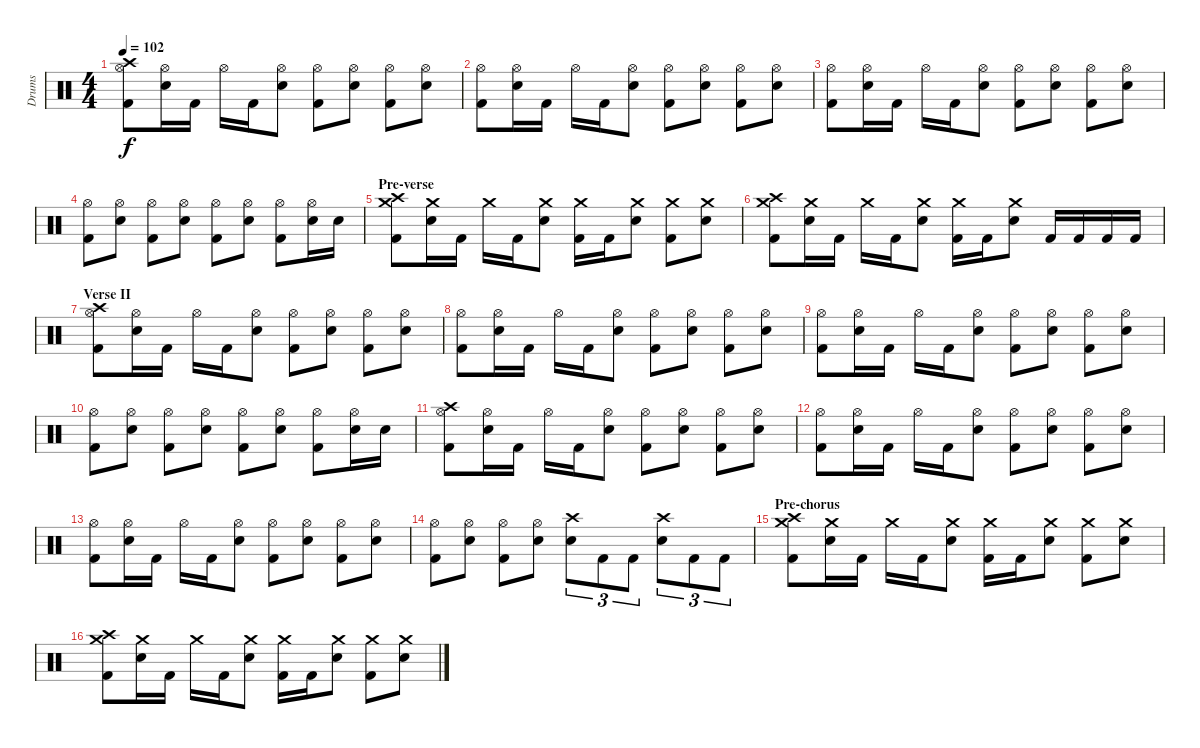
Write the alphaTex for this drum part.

\track ("Drums" "Drums") {instrument percussion}
\staff {score}
\articulation defaults
\ts (4 4)
\tempo 102
\clef neutral
\ks c
("Hi-Hat (open)" "Kick (hit) 2" "Crash high (hit)").8{dy f} ("Hi-Hat (open)" "Electric Snare (hit)").16 "Kick (hit) 2".16 "Hi-Hat (open)".16 "Kick (hit) 2".16 ("Hi-Hat (open)" "Electric Snare (hit)").8 ("Hi-Hat (open)" "Kick (hit) 2").8 ("Hi-Hat (open)" "Electric Snare (hit)").8 ("Hi-Hat (open)" "Kick (hit) 2").8 ("Hi-Hat (open)" "Electric Snare (hit)").8 |
("Hi-Hat (open)" "Kick (hit) 2").8 ("Hi-Hat (open)" "Electric Snare (hit)").16 "Kick (hit) 2".16 "Hi-Hat (open)".16 "Kick (hit) 2".16 ("Hi-Hat (open)" "Electric Snare (hit)").8 ("Hi-Hat (open)" "Kick (hit) 2").8 ("Hi-Hat (open)" "Electric Snare (hit)").8 ("Hi-Hat (open)" "Kick (hit) 2").8 ("Hi-Hat (open)" "Electric Snare (hit)").8 |
("Hi-Hat (open)" "Kick (hit) 2").8 ("Hi-Hat (open)" "Electric Snare (hit)").16 "Kick (hit) 2".16 "Hi-Hat (open)".16 "Kick (hit) 2".16 ("Hi-Hat (open)" "Electric Snare (hit)").8 ("Hi-Hat (open)" "Kick (hit) 2").8 ("Hi-Hat (open)" "Electric Snare (hit)").8 ("Hi-Hat (open)" "Kick (hit) 2").8 ("Hi-Hat (open)" "Electric Snare (hit)").8 |
("Hi-Hat (open)" "Kick (hit) 2").8 ("Hi-Hat (open)" "Electric Snare (hit)").8 ("Hi-Hat (open)" "Kick (hit) 2").8 ("Hi-Hat (open)" "Electric Snare (hit)").8 ("Hi-Hat (open)" "Kick (hit) 2").8 ("Hi-Hat (open)" "Electric Snare (hit)").8 ("Hi-Hat (open)" "Kick (hit) 2").8 ("Hi-Hat (open)" "Electric Snare (hit)").16 "Electric Snare (hit)".16 |
\section ("" "Pre-verse")
("Crash medium (hit)" "Kick (hit) 2" "Crash high (hit)").8 ("Crash medium (hit)" "Electric Snare (hit)").16 "Kick (hit) 2".16 "Crash medium (hit)".16 "Kick (hit) 2".16 ("Crash medium (hit)" "Electric Snare (hit)").8 ("Crash medium (hit)" "Kick (hit) 2").16 "Kick (hit) 2".16 ("Crash medium (hit)" "Electric Snare (hit)").8 ("Crash medium (hit)" "Kick (hit) 2").8 ("Crash medium (hit)" "Electric Snare (hit)").8 |
("Crash medium (hit)" "Kick (hit) 2" "Crash high (hit)").8 ("Crash medium (hit)" "Electric Snare (hit)").16 "Kick (hit) 2".16 "Crash medium (hit)".16 "Kick (hit) 2".16 ("Crash medium (hit)" "Electric Snare (hit)").8 ("Crash medium (hit)" "Kick (hit) 2").16 "Kick (hit) 2".16 ("Crash medium (hit)" "Electric Snare (hit)").8 "Kick (hit) 2".16 "Kick (hit) 2".16 "Kick (hit) 2".16 "Kick (hit) 2".16 |
\section ("" "Verse II")
("Hi-Hat (open)" "Kick (hit) 2" "Crash high (hit)").8 ("Hi-Hat (open)" "Electric Snare (hit)").16 "Kick (hit) 2".16 "Hi-Hat (open)".16 "Kick (hit) 2".16 ("Hi-Hat (open)" "Electric Snare (hit)").8 ("Hi-Hat (open)" "Kick (hit) 2").8 ("Hi-Hat (open)" "Electric Snare (hit)").8 ("Hi-Hat (open)" "Kick (hit) 2").8 ("Hi-Hat (open)" "Electric Snare (hit)").8 |
("Hi-Hat (open)" "Kick (hit) 2").8 ("Hi-Hat (open)" "Electric Snare (hit)").16 "Kick (hit) 2".16 "Hi-Hat (open)".16 "Kick (hit) 2".16 ("Hi-Hat (open)" "Electric Snare (hit)").8 ("Hi-Hat (open)" "Kick (hit) 2").8 ("Hi-Hat (open)" "Electric Snare (hit)").8 ("Hi-Hat (open)" "Kick (hit) 2").8 ("Hi-Hat (open)" "Electric Snare (hit)").8 |
("Hi-Hat (open)" "Kick (hit) 2").8 ("Hi-Hat (open)" "Electric Snare (hit)").16 "Kick (hit) 2".16 "Hi-Hat (open)".16 "Kick (hit) 2".16 ("Hi-Hat (open)" "Electric Snare (hit)").8 ("Hi-Hat (open)" "Kick (hit) 2").8 ("Hi-Hat (open)" "Electric Snare (hit)").8 ("Hi-Hat (open)" "Kick (hit) 2").8 ("Hi-Hat (open)" "Electric Snare (hit)").8 |
("Hi-Hat (open)" "Kick (hit) 2").8 ("Hi-Hat (open)" "Electric Snare (hit)").8 ("Hi-Hat (open)" "Kick (hit) 2").8 ("Hi-Hat (open)" "Electric Snare (hit)").8 ("Hi-Hat (open)" "Kick (hit) 2").8 ("Hi-Hat (open)" "Electric Snare (hit)").8 ("Hi-Hat (open)" "Kick (hit) 2").8 ("Hi-Hat (open)" "Electric Snare (hit)").16 "Electric Snare (hit)".16 |
("Hi-Hat (open)" "Kick (hit) 2" "Crash high (hit)").8 ("Hi-Hat (open)" "Electric Snare (hit)").16 "Kick (hit) 2".16 "Hi-Hat (open)".16 "Kick (hit) 2".16 ("Hi-Hat (open)" "Electric Snare (hit)").8 ("Hi-Hat (open)" "Kick (hit) 2").8 ("Hi-Hat (open)" "Electric Snare (hit)").8 ("Hi-Hat (open)" "Kick (hit) 2").8 ("Hi-Hat (open)" "Electric Snare (hit)").8 |
("Hi-Hat (open)" "Kick (hit) 2").8 ("Hi-Hat (open)" "Electric Snare (hit)").16 "Kick (hit) 2".16 "Hi-Hat (open)".16 "Kick (hit) 2".16 ("Hi-Hat (open)" "Electric Snare (hit)").8 ("Hi-Hat (open)" "Kick (hit) 2").8 ("Hi-Hat (open)" "Electric Snare (hit)").8 ("Hi-Hat (open)" "Kick (hit) 2").8 ("Hi-Hat (open)" "Electric Snare (hit)").8 |
("Hi-Hat (open)" "Kick (hit) 2").8 ("Hi-Hat (open)" "Electric Snare (hit)").16 "Kick (hit) 2".16 "Hi-Hat (open)".16 "Kick (hit) 2".16 ("Hi-Hat (open)" "Electric Snare (hit)").8 ("Hi-Hat (open)" "Kick (hit) 2").8 ("Hi-Hat (open)" "Electric Snare (hit)").8 ("Hi-Hat (open)" "Kick (hit) 2").8 ("Hi-Hat (open)" "Electric Snare (hit)").8 |
("Hi-Hat (open)" "Kick (hit) 2").8 ("Hi-Hat (open)" "Electric Snare (hit)").8 ("Hi-Hat (open)" "Kick (hit) 2").8 ("Hi-Hat (open)" "Electric Snare (hit)").8 ("Crash high (hit)" "Electric Snare (hit)").8{tu (3 2)} "Kick (hit) 2".8{tu (3 2)} "Kick (hit) 2".8{tu (3 2)} ("Crash high (hit)" "Electric Snare (hit)").8{tu (3 2)} "Kick (hit) 2".8{tu (3 2)} "Kick (hit) 2".8{tu (3 2)} |
\section ("" "Pre-chorus")
("Crash medium (hit)" "Kick (hit) 2" "Crash high (hit)").8 ("Crash medium (hit)" "Electric Snare (hit)").16 "Kick (hit) 2".16 "Crash medium (hit)".16 "Kick (hit) 2".16 ("Crash medium (hit)" "Electric Snare (hit)").8 ("Crash medium (hit)" "Kick (hit) 2").16 "Kick (hit) 2".16 ("Crash medium (hit)" "Electric Snare (hit)").8 ("Crash medium (hit)" "Kick (hit) 2").8 ("Crash medium (hit)" "Electric Snare (hit)").8 |
("Crash medium (hit)" "Kick (hit) 2" "Crash high (hit)").8 ("Crash medium (hit)" "Electric Snare (hit)").16 "Kick (hit) 2".16 "Crash medium (hit)".16 "Kick (hit) 2".16 ("Crash medium (hit)" "Electric Snare (hit)").8 ("Crash medium (hit)" "Kick (hit) 2").16 "Kick (hit) 2".16 ("Crash medium (hit)" "Electric Snare (hit)").8 ("Crash medium (hit)" "Kick (hit) 2").8 ("Crash medium (hit)" "Electric Snare (hit)").8
